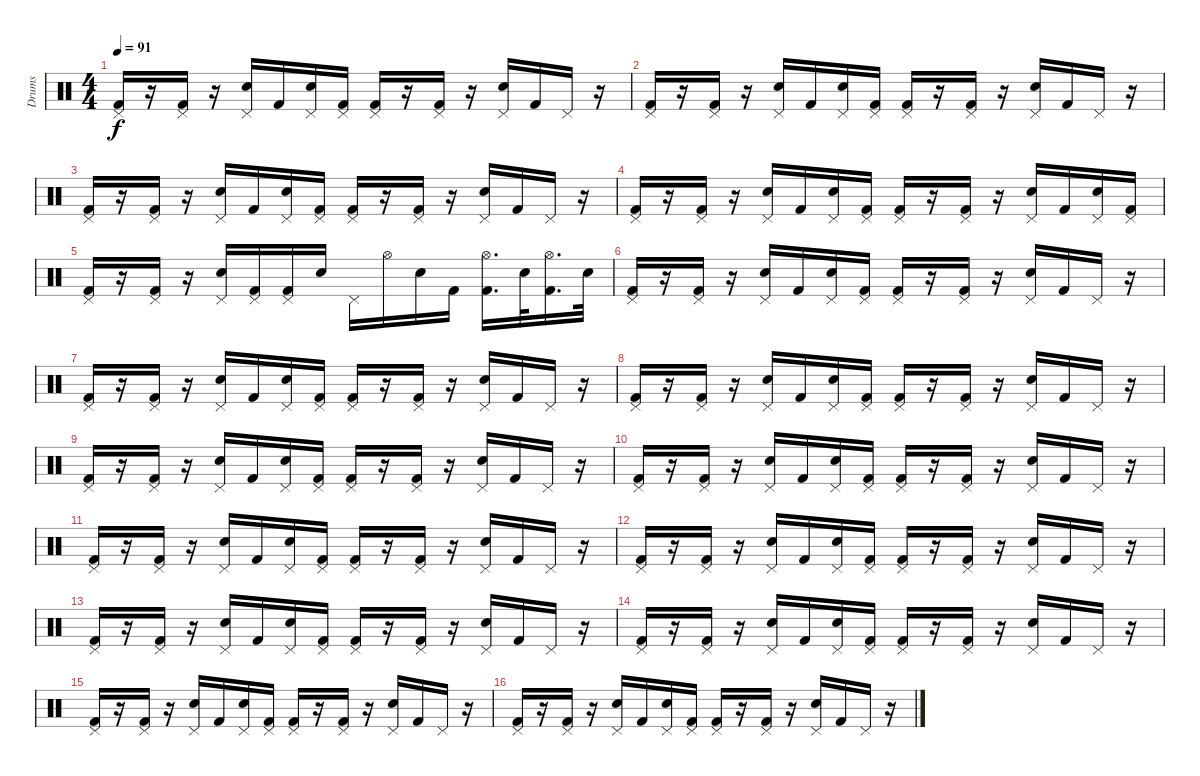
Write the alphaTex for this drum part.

\track ("Drums" "Drums") {instrument percussion}
\staff {score}
\articulation defaults
\ts (4 4)
\tempo 91
\clef neutral
\ks c
("Pedal Hi-Hat (hit)" "Kick (hit) 2").16{dy f} r.16 ("Pedal Hi-Hat (hit)" "Kick (hit) 2").16 r.16 ("Pedal Hi-Hat (hit)" "Snare (hit) 2").16 "Kick (hit) 2".16 ("Pedal Hi-Hat (hit)" "Snare (hit) 2").16 ("Pedal Hi-Hat (hit)" "Kick (hit) 2").16 ("Pedal Hi-Hat (hit)" "Kick (hit) 2").16 r.16 ("Pedal Hi-Hat (hit)" "Kick (hit) 2").16 r.16 ("Pedal Hi-Hat (hit)" "Snare (hit) 2").16 "Kick (hit) 2".16 "Pedal Hi-Hat (hit)".16 r.16 |
("Pedal Hi-Hat (hit)" "Kick (hit) 2").16 r.16 ("Pedal Hi-Hat (hit)" "Kick (hit) 2").16 r.16 ("Pedal Hi-Hat (hit)" "Snare (hit) 2").16 "Kick (hit) 2".16 ("Pedal Hi-Hat (hit)" "Snare (hit) 2").16 ("Pedal Hi-Hat (hit)" "Kick (hit) 2").16 ("Pedal Hi-Hat (hit)" "Kick (hit) 2").16 r.16 ("Pedal Hi-Hat (hit)" "Kick (hit) 2").16 r.16 ("Pedal Hi-Hat (hit)" "Snare (hit) 2").16 "Kick (hit) 2".16 "Pedal Hi-Hat (hit)".16 r.16 |
("Pedal Hi-Hat (hit)" "Kick (hit) 2").16 r.16 ("Pedal Hi-Hat (hit)" "Kick (hit) 2").16 r.16 ("Pedal Hi-Hat (hit)" "Snare (hit) 2").16 "Kick (hit) 2".16 ("Pedal Hi-Hat (hit)" "Snare (hit) 2").16 ("Pedal Hi-Hat (hit)" "Kick (hit) 2").16 ("Pedal Hi-Hat (hit)" "Kick (hit) 2").16 r.16 ("Pedal Hi-Hat (hit)" "Kick (hit) 2").16 r.16 ("Pedal Hi-Hat (hit)" "Snare (hit) 2").16 "Kick (hit) 2".16 "Pedal Hi-Hat (hit)".16 r.16 |
("Pedal Hi-Hat (hit)" "Kick (hit) 2").16 r.16 ("Pedal Hi-Hat (hit)" "Kick (hit) 2").16 r.16 ("Pedal Hi-Hat (hit)" "Snare (hit) 2").16 "Kick (hit) 2".16 ("Pedal Hi-Hat (hit)" "Snare (hit) 2").16 ("Pedal Hi-Hat (hit)" "Kick (hit) 2").16 ("Pedal Hi-Hat (hit)" "Kick (hit) 2").16 r.16 ("Pedal Hi-Hat (hit)" "Kick (hit) 2").16 r.16 ("Pedal Hi-Hat (hit)" "Snare (hit) 2").16 "Kick (hit) 2".16 ("Pedal Hi-Hat (hit)" "Snare (hit) 2").16 ("Pedal Hi-Hat (hit)" "Kick (hit) 2").16 |
("Pedal Hi-Hat (hit)" "Kick (hit) 2").16 r.16 ("Pedal Hi-Hat (hit)" "Kick (hit) 2").16 r.16 ("Pedal Hi-Hat (hit)" "Snare (hit) 2").16 ("Pedal Hi-Hat (hit)" "Kick (hit) 2").16 ("Pedal Hi-Hat (hit)" "Kick (hit) 2").16 "Snare (hit) 2".16 "Pedal Hi-Hat (hit)".16 "Hi-Hat (open)".16 "Snare (hit) 2".16 "Kick (hit) 2".16 ("Hi-Hat (open)" "Kick (hit) 2").16{d} "Snare (hit) 2".32 ("Hi-Hat (open)" "Kick (hit) 2").16{d} "Snare (hit) 2".32 |
("Pedal Hi-Hat (hit)" "Kick (hit) 2").16 r.16 ("Pedal Hi-Hat (hit)" "Kick (hit) 2").16 r.16 ("Pedal Hi-Hat (hit)" "Snare (hit) 2").16 "Kick (hit) 2".16 ("Pedal Hi-Hat (hit)" "Snare (hit) 2").16 ("Pedal Hi-Hat (hit)" "Kick (hit) 2").16 ("Pedal Hi-Hat (hit)" "Kick (hit) 2").16 r.16 ("Pedal Hi-Hat (hit)" "Kick (hit) 2").16 r.16 ("Pedal Hi-Hat (hit)" "Snare (hit) 2").16 "Kick (hit) 2".16 "Pedal Hi-Hat (hit)".16 r.16 |
("Pedal Hi-Hat (hit)" "Kick (hit) 2").16 r.16 ("Pedal Hi-Hat (hit)" "Kick (hit) 2").16 r.16 ("Pedal Hi-Hat (hit)" "Snare (hit) 2").16 "Kick (hit) 2".16 ("Pedal Hi-Hat (hit)" "Snare (hit) 2").16 ("Pedal Hi-Hat (hit)" "Kick (hit) 2").16 ("Pedal Hi-Hat (hit)" "Kick (hit) 2").16 r.16 ("Pedal Hi-Hat (hit)" "Kick (hit) 2").16 r.16 ("Pedal Hi-Hat (hit)" "Snare (hit) 2").16 "Kick (hit) 2".16 "Pedal Hi-Hat (hit)".16 r.16 |
("Pedal Hi-Hat (hit)" "Kick (hit) 2").16 r.16 ("Pedal Hi-Hat (hit)" "Kick (hit) 2").16 r.16 ("Pedal Hi-Hat (hit)" "Snare (hit) 2").16 "Kick (hit) 2".16 ("Pedal Hi-Hat (hit)" "Snare (hit) 2").16 ("Pedal Hi-Hat (hit)" "Kick (hit) 2").16 ("Pedal Hi-Hat (hit)" "Kick (hit) 2").16 r.16 ("Pedal Hi-Hat (hit)" "Kick (hit) 2").16 r.16 ("Pedal Hi-Hat (hit)" "Snare (hit) 2").16 "Kick (hit) 2".16 "Pedal Hi-Hat (hit)".16 r.16 |
("Pedal Hi-Hat (hit)" "Kick (hit) 2").16 r.16 ("Pedal Hi-Hat (hit)" "Kick (hit) 2").16 r.16 ("Pedal Hi-Hat (hit)" "Snare (hit) 2").16 "Kick (hit) 2".16 ("Pedal Hi-Hat (hit)" "Snare (hit) 2").16 ("Pedal Hi-Hat (hit)" "Kick (hit) 2").16 ("Pedal Hi-Hat (hit)" "Kick (hit) 2").16 r.16 ("Pedal Hi-Hat (hit)" "Kick (hit) 2").16 r.16 ("Pedal Hi-Hat (hit)" "Snare (hit) 2").16 "Kick (hit) 2".16 "Pedal Hi-Hat (hit)".16 r.16 |
("Pedal Hi-Hat (hit)" "Kick (hit) 2").16 r.16 ("Pedal Hi-Hat (hit)" "Kick (hit) 2").16 r.16 ("Pedal Hi-Hat (hit)" "Snare (hit) 2").16 "Kick (hit) 2".16 ("Pedal Hi-Hat (hit)" "Snare (hit) 2").16 ("Pedal Hi-Hat (hit)" "Kick (hit) 2").16 ("Pedal Hi-Hat (hit)" "Kick (hit) 2").16 r.16 ("Pedal Hi-Hat (hit)" "Kick (hit) 2").16 r.16 ("Pedal Hi-Hat (hit)" "Snare (hit) 2").16 "Kick (hit) 2".16 "Pedal Hi-Hat (hit)".16 r.16 |
("Pedal Hi-Hat (hit)" "Kick (hit) 2").16 r.16 ("Pedal Hi-Hat (hit)" "Kick (hit) 2").16 r.16 ("Pedal Hi-Hat (hit)" "Snare (hit) 2").16 "Kick (hit) 2".16 ("Pedal Hi-Hat (hit)" "Snare (hit) 2").16 ("Pedal Hi-Hat (hit)" "Kick (hit) 2").16 ("Pedal Hi-Hat (hit)" "Kick (hit) 2").16 r.16 ("Pedal Hi-Hat (hit)" "Kick (hit) 2").16 r.16 ("Pedal Hi-Hat (hit)" "Snare (hit) 2").16 "Kick (hit) 2".16 "Pedal Hi-Hat (hit)".16 r.16 |
("Pedal Hi-Hat (hit)" "Kick (hit) 2").16 r.16 ("Pedal Hi-Hat (hit)" "Kick (hit) 2").16 r.16 ("Pedal Hi-Hat (hit)" "Snare (hit) 2").16 "Kick (hit) 2".16 ("Pedal Hi-Hat (hit)" "Snare (hit) 2").16 ("Pedal Hi-Hat (hit)" "Kick (hit) 2").16 ("Pedal Hi-Hat (hit)" "Kick (hit) 2").16 r.16 ("Pedal Hi-Hat (hit)" "Kick (hit) 2").16 r.16 ("Pedal Hi-Hat (hit)" "Snare (hit) 2").16 "Kick (hit) 2".16 "Pedal Hi-Hat (hit)".16 r.16 |
("Pedal Hi-Hat (hit)" "Kick (hit) 2").16 r.16 ("Pedal Hi-Hat (hit)" "Kick (hit) 2").16 r.16 ("Pedal Hi-Hat (hit)" "Snare (hit) 2").16 "Kick (hit) 2".16 ("Pedal Hi-Hat (hit)" "Snare (hit) 2").16 ("Pedal Hi-Hat (hit)" "Kick (hit) 2").16 ("Pedal Hi-Hat (hit)" "Kick (hit) 2").16 r.16 ("Pedal Hi-Hat (hit)" "Kick (hit) 2").16 r.16 ("Pedal Hi-Hat (hit)" "Snare (hit) 2").16 "Kick (hit) 2".16 "Pedal Hi-Hat (hit)".16 r.16 |
("Pedal Hi-Hat (hit)" "Kick (hit) 2").16 r.16 ("Pedal Hi-Hat (hit)" "Kick (hit) 2").16 r.16 ("Pedal Hi-Hat (hit)" "Snare (hit) 2").16 "Kick (hit) 2".16 ("Pedal Hi-Hat (hit)" "Snare (hit) 2").16 ("Pedal Hi-Hat (hit)" "Kick (hit) 2").16 ("Pedal Hi-Hat (hit)" "Kick (hit) 2").16 r.16 ("Pedal Hi-Hat (hit)" "Kick (hit) 2").16 r.16 ("Pedal Hi-Hat (hit)" "Snare (hit) 2").16 "Kick (hit) 2".16 "Pedal Hi-Hat (hit)".16 r.16 |
("Pedal Hi-Hat (hit)" "Kick (hit) 2").16 r.16 ("Pedal Hi-Hat (hit)" "Kick (hit) 2").16 r.16 ("Pedal Hi-Hat (hit)" "Snare (hit) 2").16 "Kick (hit) 2".16 ("Pedal Hi-Hat (hit)" "Snare (hit) 2").16 ("Pedal Hi-Hat (hit)" "Kick (hit) 2").16 ("Pedal Hi-Hat (hit)" "Kick (hit) 2").16 r.16 ("Pedal Hi-Hat (hit)" "Kick (hit) 2").16 r.16 ("Pedal Hi-Hat (hit)" "Snare (hit) 2").16 "Kick (hit) 2".16 "Pedal Hi-Hat (hit)".16 r.16 |
("Pedal Hi-Hat (hit)" "Kick (hit) 2").16 r.16 ("Pedal Hi-Hat (hit)" "Kick (hit) 2").16 r.16 ("Pedal Hi-Hat (hit)" "Snare (hit) 2").16 "Kick (hit) 2".16 ("Pedal Hi-Hat (hit)" "Snare (hit) 2").16 ("Pedal Hi-Hat (hit)" "Kick (hit) 2").16 ("Pedal Hi-Hat (hit)" "Kick (hit) 2").16 r.16 ("Pedal Hi-Hat (hit)" "Kick (hit) 2").16 r.16 ("Pedal Hi-Hat (hit)" "Snare (hit) 2").16 "Kick (hit) 2".16 "Pedal Hi-Hat (hit)".16 r.16
